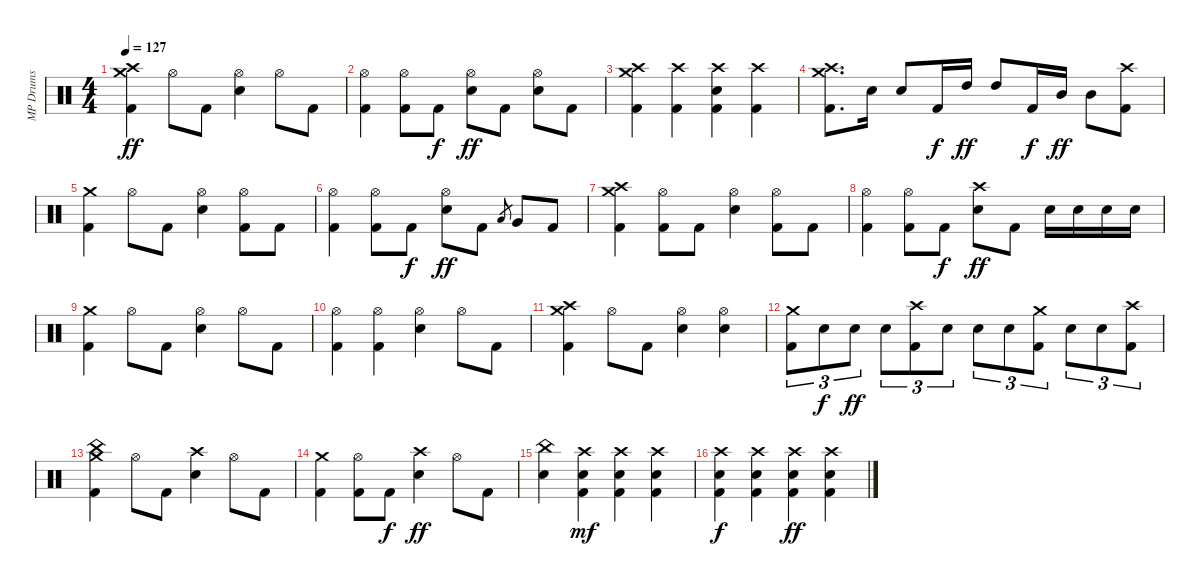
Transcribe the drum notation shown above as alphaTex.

\track ("MP Drums" "MP Drums") {instrument percussion}
\staff {score}
\articulation defaults
\ts (4 4)
\tempo 127
\clef neutral
\ks c
("Crash medium (hit)" "Crash high (hit)" "Kick (hit) 2").4{dy ff} "Hi-Hat (open)".8 "Kick (hit) 2".8 ("Hi-Hat (open)" "Snare (hit) 2").4 "Hi-Hat (open)".8 "Kick (hit) 2".8 |
("Hi-Hat (open)" "Kick (hit) 2").4 ("Hi-Hat (open)" "Kick (hit) 2").8 "Kick (hit) 2".8{dy f} ("Hi-Hat (open)" "Snare (hit) 2").8{dy ff} "Kick (hit) 2".8 ("Hi-Hat (open)" "Snare (hit) 2").8 "Kick (hit) 2".8 |
("Crash medium (hit)" "Crash high (hit)" "Kick (hit) 2").4 ("Crash high (hit)" "Kick (hit) 2").4 ("Crash high (hit)" "Snare (hit) 2" "Kick (hit) 2").4 ("Crash high (hit)" "Kick (hit) 2").4 |
("Crash high (hit)" "Crash medium (hit)" "Kick (hit) 2").8{d} "Snare (hit) 2".16 "Snare (hit) 2".8 "Kick (hit) 2".16{dy f} "High Tom (hit)".16{dy ff} "High Tom (hit)".8 "Kick (hit) 2".16{dy f} "Mid Tom (hit)".16{dy ff} "Mid Tom (hit)".8 ("Crash high (hit)" "Kick (hit) 2").8 |
("Crash medium (hit)" "Kick (hit) 2").4 "Hi-Hat (open)".8 "Kick (hit) 2".8 ("Hi-Hat (open)" "Snare (hit) 2").4 ("Hi-Hat (open)" "Kick (hit) 2").8 "Kick (hit) 2".8 |
("Hi-Hat (open)" "Kick (hit) 2").4 ("Hi-Hat (open)" "Kick (hit) 2").8 "Kick (hit) 2".8{dy f} ("Hi-Hat (open)" "Snare (hit) 2").8{dy ff} "Kick (hit) 2".8 "Low Tom (hit)".8{gr} "Very Low Tom (hit)".8 "Kick (hit) 2".8 |
("Crash medium (hit)" "Crash high (hit)" "Kick (hit) 2").4 ("Hi-Hat (open)" "Kick (hit) 2").8 "Kick (hit) 2".8 ("Hi-Hat (open)" "Snare (hit) 2").4 ("Hi-Hat (open)" "Kick (hit) 2").8 "Kick (hit) 2".8 |
("Hi-Hat (open)" "Kick (hit) 2").4 ("Hi-Hat (open)" "Kick (hit) 2").8 "Kick (hit) 2".8{dy f} ("Crash high (hit)" "Snare (hit) 2").8{dy ff} "Kick (hit) 2".8 "Snare (hit) 2".16 "Snare (hit) 2".16 "Snare (hit) 2".16 "Snare (hit) 2".16 |
("Crash medium (hit)" "Kick (hit) 2").4 "Hi-Hat (open)".8 "Kick (hit) 2".8 ("Hi-Hat (open)" "Snare (hit) 2").4 "Hi-Hat (open)".8 "Kick (hit) 2".8 |
("Hi-Hat (open)" "Kick (hit) 2").4 ("Hi-Hat (open)" "Kick (hit) 2").4 ("Hi-Hat (open)" "Snare (hit) 2").4 "Hi-Hat (open)".8 "Kick (hit) 2".8 |
("Crash medium (hit)" "Crash high (hit)" "Kick (hit) 2").4 "Hi-Hat (open)".8 "Kick (hit) 2".8 ("Hi-Hat (open)" "Snare (hit) 2").4 ("Hi-Hat (open)" "Snare (hit) 2").4 |
("Crash medium (hit)" "Kick (hit) 2").8{tu (3 2)} "Snare (hit) 2".8{tu (3 2) dy f} "Snare (hit) 2".8{tu (3 2) dy ff} "Snare (hit) 2".8{tu (3 2)} ("Crash high (hit)" "Kick (hit) 2").8{tu (3 2)} "Snare (hit) 2".8{tu (3 2)} "Snare (hit) 2".8{tu (3 2)} "Snare (hit) 2".8{tu (3 2)} ("Crash medium (hit)" "Kick (hit) 2").8{tu (3 2)} "Snare (hit) 2".8{tu (3 2)} "Snare (hit) 2".8{tu (3 2)} ("Crash high (hit)" "Kick (hit) 2").8{tu (3 2)} |
("China (hit)" "Crash medium (hit)" "Kick (hit) 2").4 "Hi-Hat (open)".8 "Kick (hit) 2".8 ("Crash high (hit)" "Snare (hit) 2").4 "Hi-Hat (open)".8 "Kick (hit) 2".8 |
("Crash medium (hit)" "Kick (hit) 2").4 ("Hi-Hat (open)" "Kick (hit) 2").8 "Kick (hit) 2".8{dy f} ("Crash high (hit)" "Snare (hit) 2").4{dy ff} "Hi-Hat (open)".8 "Kick (hit) 2".8 |
("China (hit)" "Snare (hit) 2").4 ("Crash high (hit)" "Snare (hit) 2" "Kick (hit) 2").4{dy mf} ("Crash high (hit)" "Snare (hit) 2" "Kick (hit) 2").4 ("Crash high (hit)" "Snare (hit) 2" "Kick (hit) 2").4 |
("Crash high (hit)" "Snare (hit) 2" "Kick (hit) 2").4{dy f} ("Crash high (hit)" "Snare (hit) 2" "Kick (hit) 2").4 ("Crash high (hit)" "Snare (hit) 2" "Kick (hit) 2").4{dy ff} ("Crash high (hit)" "Snare (hit) 2" "Kick (hit) 2").4
